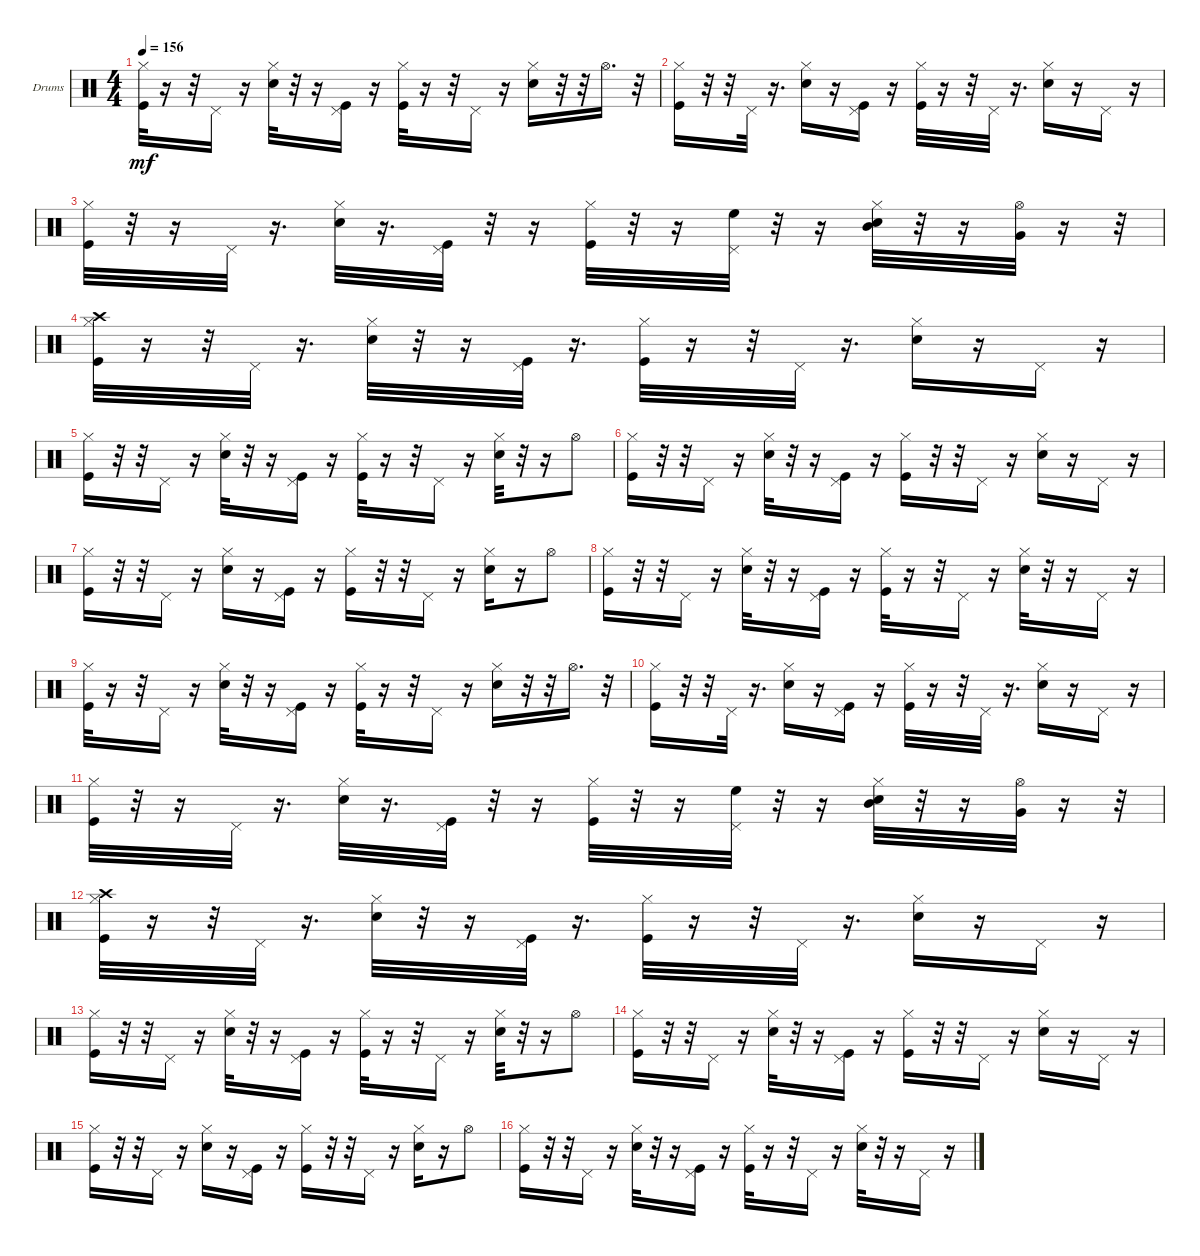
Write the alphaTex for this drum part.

\defaultSystemsLayout 4
\bracketExtendMode groupsimilarinstruments
\firstSystemTrackNameOrientation horizontal
\otherSystemsTrackNameOrientation horizontal
\track ("Drumkit" "Drums") {instrument percussion}
\staff {score}
\articulation defaults
\ts (4 4)
\tempo 156
\clef neutral
\ks c
("Kick (hit)" "Hi-Hat (closed)").32{dy mf} r.16 r.32 "Pedal Hi-Hat (hit)".16 r.16 ("Snare (hit) 2" "Hi-Hat (closed)").32 r.32 r.16 ("Kick (hit)" "Pedal Hi-Hat (hit)").16 r.16 ("Kick (hit)" "Hi-Hat (closed)").32 r.16 r.32 "Pedal Hi-Hat (hit)".16 r.16 ("Snare (hit) 2" "Hi-Hat (closed)").16 r.32 r.32 "Hi-Hat (open)".16{d} r.32 |
("Kick (hit)" "Hi-Hat (closed)").16 r.32 r.32 "Pedal Hi-Hat (hit)".32 r.16{d} ("Snare (hit) 2" "Hi-Hat (closed)").16 r.16 ("Kick (hit)" "Pedal Hi-Hat (hit)").16 r.16 ("Kick (hit)" "Hi-Hat (closed)").32 r.16 r.32 "Pedal Hi-Hat (hit)".32 r.16{d} ("Snare (hit) 2" "Hi-Hat (closed)").16 r.16 "Pedal Hi-Hat (hit)".16 r.16 |
("Kick (hit)" "Hi-Hat (closed)").32 r.32 r.16 "Pedal Hi-Hat (hit)".32 r.16{d} ("Snare (hit) 2" "Hi-Hat (closed)").32 r.16{d} ("Kick (hit)" "Pedal Hi-Hat (hit)").32 r.32 r.16 ("Kick (hit)" "Hi-Hat (closed)").32 r.32 r.16 ("Pedal Hi-Hat (hit)" "High Floor Tom (hit)").32 r.32 r.16 ("Snare (hit) 2" "Hi-Hat (closed)" "Mid Tom (hit)").32 r.32 r.16 ("Hi-Hat (open)" "Very Low Tom (hit)").32 r.16 r.32 |
("Kick (hit)" "Crash high (hit)" "Hi-Hat (closed)").32 r.16 r.32 "Pedal Hi-Hat (hit)".32 r.16{d} ("Snare (hit) 2" "Hi-Hat (closed)").32 r.32 r.16 ("Kick (hit)" "Pedal Hi-Hat (hit)").32 r.16{d} ("Kick (hit)" "Hi-Hat (closed)").32 r.16 r.32 "Pedal Hi-Hat (hit)".32 r.16{d} ("Snare (hit) 2" "Hi-Hat (closed)").16 r.16 "Pedal Hi-Hat (hit)".16 r.16 |
("Kick (hit)" "Hi-Hat (closed)").16 r.32 r.32 "Pedal Hi-Hat (hit)".16 r.16 ("Snare (hit) 2" "Hi-Hat (closed)").32 r.32 r.16 ("Kick (hit)" "Pedal Hi-Hat (hit)").16 r.16 ("Kick (hit)" "Hi-Hat (closed)").32 r.16 r.32 "Pedal Hi-Hat (hit)".16 r.16 ("Snare (hit) 2" "Hi-Hat (closed)").32 r.32 r.16 "Hi-Hat (open)".8 |
("Kick (hit)" "Hi-Hat (closed)").16 r.32 r.32 "Pedal Hi-Hat (hit)".16 r.16 ("Snare (hit) 2" "Hi-Hat (closed)").32 r.32 r.16 ("Kick (hit)" "Pedal Hi-Hat (hit)").16 r.16 ("Kick (hit)" "Hi-Hat (closed)").16 r.32 r.32 "Pedal Hi-Hat (hit)".16 r.16 ("Snare (hit) 2" "Hi-Hat (closed)").16 r.16 "Pedal Hi-Hat (hit)".16 r.16 |
("Kick (hit)" "Hi-Hat (closed)").16 r.32 r.32 "Pedal Hi-Hat (hit)".16 r.16 ("Snare (hit) 2" "Hi-Hat (closed)").16 r.16 ("Kick (hit)" "Pedal Hi-Hat (hit)").16 r.16 ("Kick (hit)" "Hi-Hat (closed)").16 r.32 r.32 "Pedal Hi-Hat (hit)".16 r.16 ("Snare (hit) 2" "Hi-Hat (closed)").16 r.16 "Hi-Hat (open)".8 |
("Kick (hit)" "Hi-Hat (closed)").16 r.32 r.32 "Pedal Hi-Hat (hit)".16 r.16 ("Snare (hit) 2" "Hi-Hat (closed)").32 r.32 r.16 ("Kick (hit)" "Pedal Hi-Hat (hit)").16 r.16 ("Kick (hit)" "Hi-Hat (closed)").32 r.16 r.32 "Pedal Hi-Hat (hit)".16 r.16 ("Snare (hit) 2" "Hi-Hat (closed)").32 r.32 r.16 "Pedal Hi-Hat (hit)".16 r.16 |
("Kick (hit)" "Hi-Hat (closed)").32 r.16 r.32 "Pedal Hi-Hat (hit)".16 r.16 ("Snare (hit) 2" "Hi-Hat (closed)").32 r.32 r.16 ("Kick (hit)" "Pedal Hi-Hat (hit)").16 r.16 ("Kick (hit)" "Hi-Hat (closed)").32 r.16 r.32 "Pedal Hi-Hat (hit)".16 r.16 ("Snare (hit) 2" "Hi-Hat (closed)").16 r.32 r.32 "Hi-Hat (open)".16{d} r.32 |
("Kick (hit)" "Hi-Hat (closed)").16 r.32 r.32 "Pedal Hi-Hat (hit)".32 r.16{d} ("Snare (hit) 2" "Hi-Hat (closed)").16 r.16 ("Kick (hit)" "Pedal Hi-Hat (hit)").16 r.16 ("Kick (hit)" "Hi-Hat (closed)").32 r.16 r.32 "Pedal Hi-Hat (hit)".32 r.16{d} ("Snare (hit) 2" "Hi-Hat (closed)").16 r.16 "Pedal Hi-Hat (hit)".16 r.16 |
("Kick (hit)" "Hi-Hat (closed)").32 r.32 r.16 "Pedal Hi-Hat (hit)".32 r.16{d} ("Snare (hit) 2" "Hi-Hat (closed)").32 r.16{d} ("Kick (hit)" "Pedal Hi-Hat (hit)").32 r.32 r.16 ("Kick (hit)" "Hi-Hat (closed)").32 r.32 r.16 ("Pedal Hi-Hat (hit)" "High Floor Tom (hit)").32 r.32 r.16 ("Snare (hit) 2" "Hi-Hat (closed)" "Mid Tom (hit)").32 r.32 r.16 ("Hi-Hat (open)" "Very Low Tom (hit)").32 r.16 r.32 |
("Kick (hit)" "Crash high (hit)" "Hi-Hat (closed)").32 r.16 r.32 "Pedal Hi-Hat (hit)".32 r.16{d} ("Snare (hit) 2" "Hi-Hat (closed)").32 r.32 r.16 ("Kick (hit)" "Pedal Hi-Hat (hit)").32 r.16{d} ("Kick (hit)" "Hi-Hat (closed)").32 r.16 r.32 "Pedal Hi-Hat (hit)".32 r.16{d} ("Snare (hit) 2" "Hi-Hat (closed)").16 r.16 "Pedal Hi-Hat (hit)".16 r.16 |
("Kick (hit)" "Hi-Hat (closed)").16 r.32 r.32 "Pedal Hi-Hat (hit)".16 r.16 ("Snare (hit) 2" "Hi-Hat (closed)").32 r.32 r.16 ("Kick (hit)" "Pedal Hi-Hat (hit)").16 r.16 ("Kick (hit)" "Hi-Hat (closed)").32 r.16 r.32 "Pedal Hi-Hat (hit)".16 r.16 ("Snare (hit) 2" "Hi-Hat (closed)").32 r.32 r.16 "Hi-Hat (open)".8 |
("Kick (hit)" "Hi-Hat (closed)").16 r.32 r.32 "Pedal Hi-Hat (hit)".16 r.16 ("Snare (hit) 2" "Hi-Hat (closed)").32 r.32 r.16 ("Kick (hit)" "Pedal Hi-Hat (hit)").16 r.16 ("Kick (hit)" "Hi-Hat (closed)").16 r.32 r.32 "Pedal Hi-Hat (hit)".16 r.16 ("Snare (hit) 2" "Hi-Hat (closed)").16 r.16 "Pedal Hi-Hat (hit)".16 r.16 |
("Kick (hit)" "Hi-Hat (closed)").16 r.32 r.32 "Pedal Hi-Hat (hit)".16 r.16 ("Snare (hit) 2" "Hi-Hat (closed)").16 r.16 ("Kick (hit)" "Pedal Hi-Hat (hit)").16 r.16 ("Kick (hit)" "Hi-Hat (closed)").16 r.32 r.32 "Pedal Hi-Hat (hit)".16 r.16 ("Snare (hit) 2" "Hi-Hat (closed)").16 r.16 "Hi-Hat (open)".8 |
("Kick (hit)" "Hi-Hat (closed)").16 r.32 r.32 "Pedal Hi-Hat (hit)".16 r.16 ("Snare (hit) 2" "Hi-Hat (closed)").32 r.32 r.16 ("Kick (hit)" "Pedal Hi-Hat (hit)").16 r.16 ("Kick (hit)" "Hi-Hat (closed)").32 r.16 r.32 "Pedal Hi-Hat (hit)".16 r.16 ("Snare (hit) 2" "Hi-Hat (closed)").32 r.32 r.16 "Pedal Hi-Hat (hit)".16 r.16
